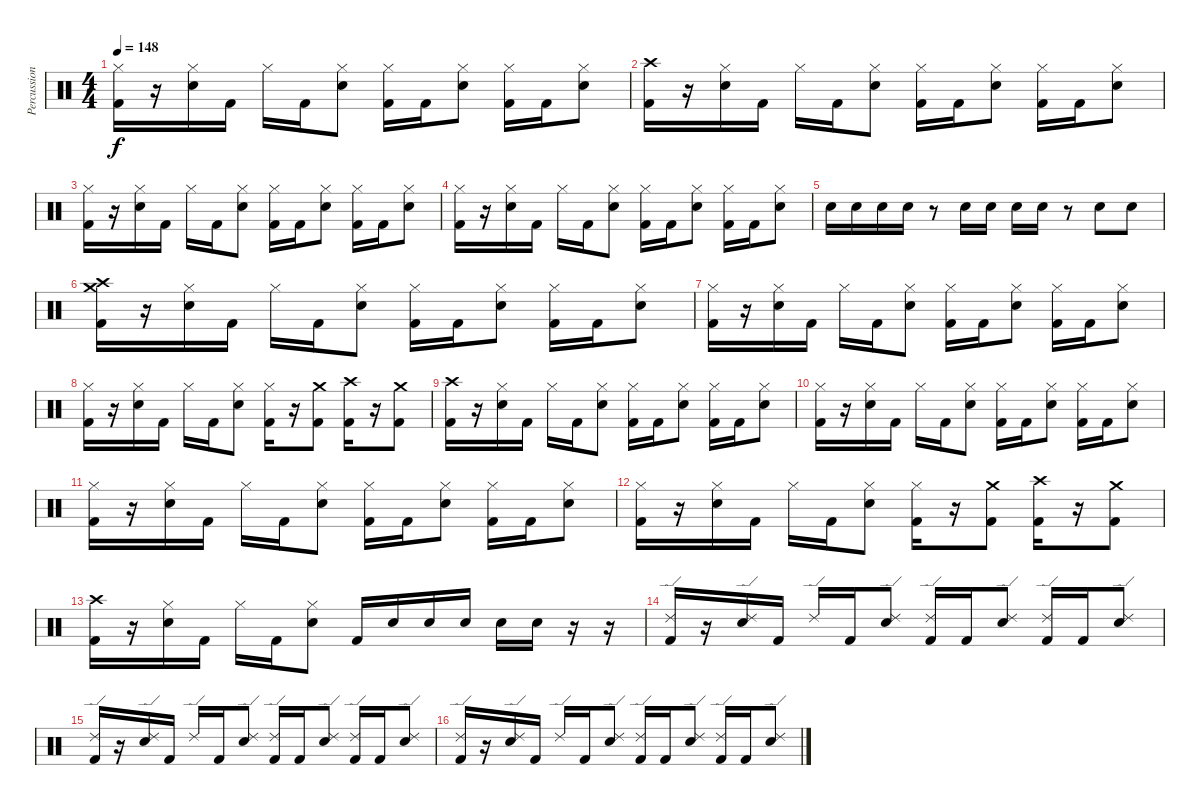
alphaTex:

\track ("Percussion" "Percussion") {instrument percussion}
\staff {score}
\articulation defaults
\ts (4 4)
\tempo 148
\clef neutral
\ks c
("Hi-Hat (closed)" "Kick (hit) 2").16{dy f} r.16 ("Hi-Hat (closed)" "Snare (hit) 2").16 "Kick (hit) 2".16 "Hi-Hat (closed)".16 "Kick (hit) 2".16 ("Hi-Hat (closed)" "Snare (hit) 2").8 ("Hi-Hat (closed)" "Kick (hit) 2").16 "Kick (hit) 2".16 ("Hi-Hat (closed)" "Snare (hit) 2").8 ("Hi-Hat (closed)" "Kick (hit) 2").16 "Kick (hit) 2".16 ("Hi-Hat (closed)" "Snare (hit) 2").8 |
("Crash high (hit)" "Kick (hit) 2").16 r.16 ("Hi-Hat (closed)" "Snare (hit) 2").16 "Kick (hit) 2".16 "Hi-Hat (closed)".16 "Kick (hit) 2".16 ("Hi-Hat (closed)" "Snare (hit) 2").8 ("Hi-Hat (closed)" "Kick (hit) 2").16 "Kick (hit) 2".16 ("Hi-Hat (closed)" "Snare (hit) 2").8 ("Hi-Hat (closed)" "Kick (hit) 2").16 "Kick (hit) 2".16 ("Hi-Hat (closed)" "Snare (hit) 2").8 |
("Hi-Hat (closed)" "Kick (hit) 2").16 r.16 ("Hi-Hat (closed)" "Snare (hit) 2").16 "Kick (hit) 2".16 "Hi-Hat (closed)".16 "Kick (hit) 2".16 ("Hi-Hat (closed)" "Snare (hit) 2").8 ("Hi-Hat (closed)" "Kick (hit) 2").16 "Kick (hit) 2".16 ("Hi-Hat (closed)" "Snare (hit) 2").8 ("Hi-Hat (closed)" "Kick (hit) 2").16 "Kick (hit) 2".16 ("Hi-Hat (closed)" "Snare (hit) 2").8 |
("Hi-Hat (closed)" "Kick (hit) 2").16 r.16 ("Hi-Hat (closed)" "Snare (hit) 2").16 "Kick (hit) 2".16 "Hi-Hat (closed)".16 "Kick (hit) 2".16 ("Hi-Hat (closed)" "Snare (hit) 2").8 ("Hi-Hat (closed)" "Kick (hit) 2").16 "Kick (hit) 2".16 ("Hi-Hat (closed)" "Snare (hit) 2").8 ("Hi-Hat (closed)" "Kick (hit) 2").16 "Kick (hit) 2".16 ("Hi-Hat (closed)" "Snare (hit) 2").8 |
"Snare (hit) 2".16 "Snare (hit) 2".16 "Snare (hit) 2".16 "Snare (hit) 2".16 r.8 "Snare (hit) 2".16 "Snare (hit) 2".16 "Snare (hit) 2".16 "Snare (hit) 2".16 r.8 "Snare (hit) 2".8 "Snare (hit) 2".8 |
("Crash medium (hit)" "Crash high (hit)" "Kick (hit) 2").16 r.16 ("Hi-Hat (closed)" "Snare (hit) 2").16 "Kick (hit) 2".16 "Hi-Hat (closed)".16 "Kick (hit) 2".16 ("Hi-Hat (closed)" "Snare (hit) 2").8 ("Hi-Hat (closed)" "Kick (hit) 2").16 "Kick (hit) 2".16 ("Hi-Hat (closed)" "Snare (hit) 2").8 ("Hi-Hat (closed)" "Kick (hit) 2").16 "Kick (hit) 2".16 ("Hi-Hat (closed)" "Snare (hit) 2").8 |
("Hi-Hat (closed)" "Kick (hit) 2").16 r.16 ("Hi-Hat (closed)" "Snare (hit) 2").16 "Kick (hit) 2".16 "Hi-Hat (closed)".16 "Kick (hit) 2".16 ("Hi-Hat (closed)" "Snare (hit) 2").8 ("Hi-Hat (closed)" "Kick (hit) 2").16 "Kick (hit) 2".16 ("Hi-Hat (closed)" "Snare (hit) 2").8 ("Hi-Hat (closed)" "Kick (hit) 2").16 "Kick (hit) 2".16 ("Hi-Hat (closed)" "Snare (hit) 2").8 |
("Hi-Hat (closed)" "Kick (hit) 2").16 r.16 ("Hi-Hat (closed)" "Snare (hit) 2").16 "Kick (hit) 2".16 "Hi-Hat (closed)".16 "Kick (hit) 2".16 ("Hi-Hat (closed)" "Snare (hit) 2").8 ("Hi-Hat (closed)" "Kick (hit) 2").16 r.16 ("Crash medium (hit)" "Kick (hit) 2").8 ("Crash high (hit)" "Kick (hit) 2").16 r.16 ("Crash medium (hit)" "Kick (hit) 2").8 |
("Crash high (hit)" "Kick (hit) 2").16 r.16 ("Hi-Hat (closed)" "Snare (hit) 2").16 "Kick (hit) 2".16 "Hi-Hat (closed)".16 "Kick (hit) 2".16 ("Hi-Hat (closed)" "Snare (hit) 2").8 ("Hi-Hat (closed)" "Kick (hit) 2").16 "Kick (hit) 2".16 ("Hi-Hat (closed)" "Snare (hit) 2").8 ("Hi-Hat (closed)" "Kick (hit) 2").16 "Kick (hit) 2".16 ("Hi-Hat (closed)" "Snare (hit) 2").8 |
("Hi-Hat (closed)" "Kick (hit) 2").16 r.16 ("Hi-Hat (closed)" "Snare (hit) 2").16 "Kick (hit) 2".16 "Hi-Hat (closed)".16 "Kick (hit) 2".16 ("Hi-Hat (closed)" "Snare (hit) 2").8 ("Hi-Hat (closed)" "Kick (hit) 2").16 "Kick (hit) 2".16 ("Hi-Hat (closed)" "Snare (hit) 2").8 ("Hi-Hat (closed)" "Kick (hit) 2").16 "Kick (hit) 2".16 ("Hi-Hat (closed)" "Snare (hit) 2").8 |
("Hi-Hat (closed)" "Kick (hit) 2").16 r.16 ("Hi-Hat (closed)" "Snare (hit) 2").16 "Kick (hit) 2".16 "Hi-Hat (closed)".16 "Kick (hit) 2".16 ("Hi-Hat (closed)" "Snare (hit) 2").8 ("Hi-Hat (closed)" "Kick (hit) 2").16 "Kick (hit) 2".16 ("Hi-Hat (closed)" "Snare (hit) 2").8 ("Hi-Hat (closed)" "Kick (hit) 2").16 "Kick (hit) 2".16 ("Hi-Hat (closed)" "Snare (hit) 2").8 |
("Hi-Hat (closed)" "Kick (hit) 2").16 r.16 ("Hi-Hat (closed)" "Snare (hit) 2").16 "Kick (hit) 2".16 "Hi-Hat (closed)".16 "Kick (hit) 2".16 ("Hi-Hat (closed)" "Snare (hit) 2").8 ("Hi-Hat (closed)" "Kick (hit) 2").16 r.16 ("Crash medium (hit)" "Kick (hit) 2").8 ("Crash high (hit)" "Kick (hit) 2").16 r.16 ("Crash medium (hit)" "Kick (hit) 2").8 |
("Crash high (hit)" "Kick (hit) 2").16 r.16 ("Hi-Hat (closed)" "Snare (hit) 2").16 "Kick (hit) 2".16 "Hi-Hat (closed)".16 "Kick (hit) 2".16 ("Hi-Hat (closed)" "Snare (hit) 2").8 "Kick (hit) 2".16 "Snare (hit) 2".16 "Snare (hit) 2".16 "Snare (hit) 2".16 "Snare (hit) 2".16 "Snare (hit) 2".16 r.16 r.16 |
("Ride (edge) 2" "Kick (hit) 2").16 r.16 ("Ride (edge) 2" "Snare (hit) 2").16 "Kick (hit) 2".16 "Ride (edge) 2".16 "Kick (hit) 2".16 ("Ride (edge) 2" "Snare (hit) 2").8 ("Ride (edge) 2" "Kick (hit) 2").16 "Kick (hit) 2".16 ("Ride (edge) 2" "Snare (hit) 2").8 ("Ride (edge) 2" "Kick (hit) 2").16 "Kick (hit) 2".16 ("Ride (edge) 2" "Snare (hit) 2").8 |
("Ride (edge) 2" "Kick (hit) 2").16 r.16 ("Ride (edge) 2" "Snare (hit) 2").16 "Kick (hit) 2".16 "Ride (edge) 2".16 "Kick (hit) 2".16 ("Ride (edge) 2" "Snare (hit) 2").8 ("Ride (edge) 2" "Kick (hit) 2").16 "Kick (hit) 2".16 ("Ride (edge) 2" "Snare (hit) 2").8 ("Ride (edge) 2" "Kick (hit) 2").16 "Kick (hit) 2".16 ("Ride (edge) 2" "Snare (hit) 2").8 |
("Ride (edge) 2" "Kick (hit) 2").16 r.16 ("Ride (edge) 2" "Snare (hit) 2").16 "Kick (hit) 2".16 "Ride (edge) 2".16 "Kick (hit) 2".16 ("Ride (edge) 2" "Snare (hit) 2").8 ("Ride (edge) 2" "Kick (hit) 2").16 "Kick (hit) 2".16 ("Ride (edge) 2" "Snare (hit) 2").8 ("Ride (edge) 2" "Kick (hit) 2").16 "Kick (hit) 2".16 ("Ride (edge) 2" "Snare (hit) 2").8
